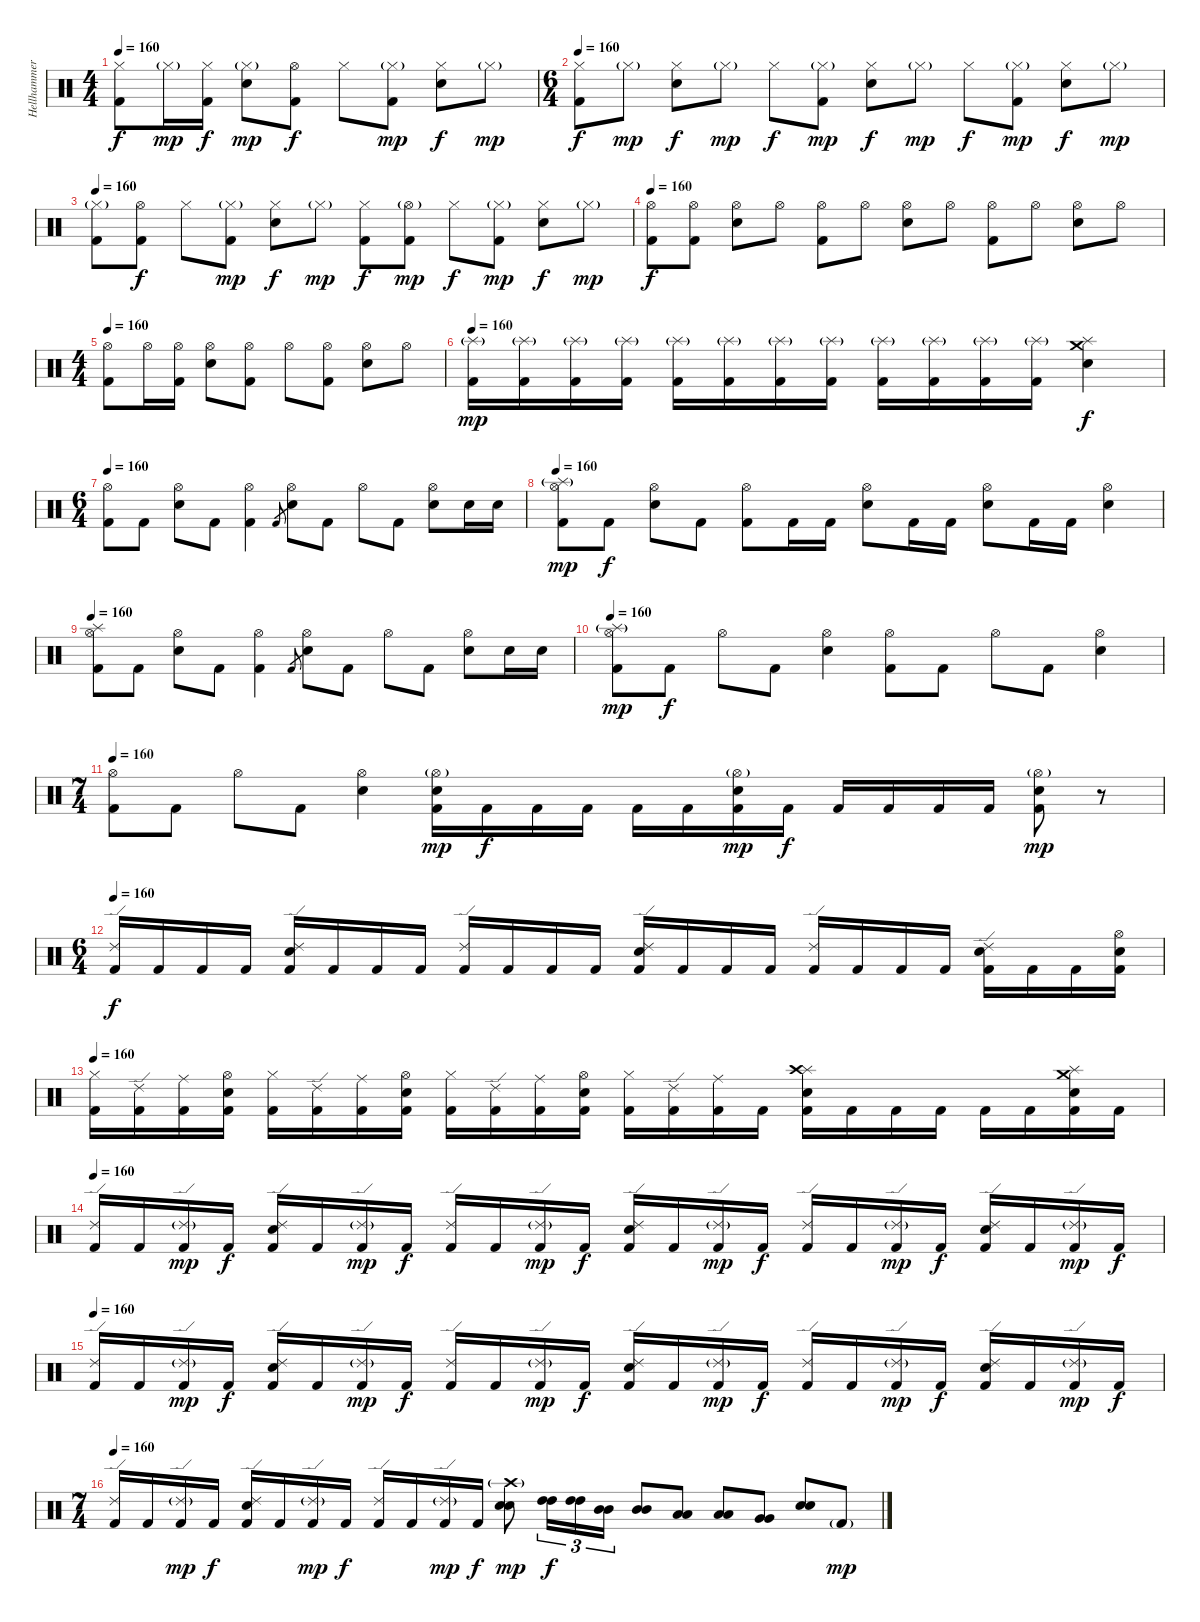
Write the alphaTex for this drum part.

\track ("Hellhammer" "Hellhammer") {instrument percussion}
\staff {score}
\articulation defaults
\ts (4 4)
\tempo 160
\clef neutral
\ks c
("Kick (hit) 2" "Hi-Hat (closed)").8{dy f} "Hi-Hat (closed)"{g}.16{dy mp} ("Kick (hit) 2" "Hi-Hat (closed)").16{dy f} ("Electric Snare (hit)" "Hi-Hat (closed)"{g}).8{dy mp} ("Kick (hit) 2" "Hi-Hat (open)").8{dy f} "Hi-Hat (closed)".8 ("Kick (hit) 2" "Hi-Hat (closed)"{g}).8{dy mp} ("Electric Snare (hit)" "Hi-Hat (closed)").8{dy f} "Hi-Hat (closed)"{g}.8{dy mp} |
\ts (6 4)
\tempo 160
("Kick (hit) 2" "Hi-Hat (closed)").8{dy f} "Hi-Hat (closed)"{g}.8{dy mp} ("Electric Snare (hit)" "Hi-Hat (closed)").8{dy f} "Hi-Hat (closed)"{g}.8{dy mp} "Hi-Hat (closed)".8{dy f} ("Kick (hit) 2" "Hi-Hat (closed)"{g}).8{dy mp} ("Electric Snare (hit)" "Hi-Hat (closed)").8{dy f} "Hi-Hat (closed)"{g}.8{dy mp} "Hi-Hat (closed)".8{dy f} ("Kick (hit) 2" "Hi-Hat (closed)"{g}).8{dy mp} ("Electric Snare (hit)" "Hi-Hat (closed)").8{dy f} "Hi-Hat (closed)"{g}.8{dy mp} |
\tempo 160
("Kick (hit) 2" "Hi-Hat (closed)"{g}).8 ("Kick (hit) 2" "Hi-Hat (open)").8{dy f} "Hi-Hat (closed)".8 ("Kick (hit) 2" "Hi-Hat (closed)"{g}).8{dy mp} ("Electric Snare (hit)" "Hi-Hat (closed)").8{dy f} "Hi-Hat (closed)"{g}.8{dy mp} ("Kick (hit) 2" "Hi-Hat (closed)").8{dy f} ("Kick (hit) 2" "Hi-Hat (open)"{g}).8{dy mp} "Hi-Hat (closed)".8{dy f} ("Kick (hit) 2" "Hi-Hat (closed)"{g}).8{dy mp} ("Electric Snare (hit)" "Hi-Hat (closed)").8{dy f} "Hi-Hat (closed)"{g}.8{dy mp} |
\tempo 160
("Kick (hit) 2" "Hi-Hat (open)").8{dy f} ("Kick (hit) 2" "Hi-Hat (open)").8 ("Electric Snare (hit)" "Hi-Hat (open)").8 "Hi-Hat (open)".8 ("Kick (hit) 2" "Hi-Hat (open)").8 "Hi-Hat (open)".8 ("Electric Snare (hit)" "Hi-Hat (open)").8 "Hi-Hat (open)".8 ("Kick (hit) 2" "Hi-Hat (open)").8 "Hi-Hat (open)".8 ("Electric Snare (hit)" "Hi-Hat (open)").8 "Hi-Hat (open)".8 |
\ts (4 4)
\tempo 160
("Kick (hit) 2" "Hi-Hat (open)").8 "Hi-Hat (open)".16 ("Kick (hit) 2" "Hi-Hat (open)").16 ("Electric Snare (hit)" "Hi-Hat (open)").8 ("Kick (hit) 2" "Hi-Hat (open)").8 "Hi-Hat (open)".8 ("Kick (hit) 2" "Hi-Hat (open)").8 ("Electric Snare (hit)" "Hi-Hat (open)").8 "Hi-Hat (open)".8 |
\tempo 160
("Kick (hit) 2" "Splash (hit)"{g}).16{dy mp} ("Kick (hit) 2" "Splash (hit)"{g}).16 ("Kick (hit) 2" "Splash (hit)"{g}).16 ("Kick (hit) 2" "Splash (hit)"{g}).16 ("Kick (hit) 2" "Splash (hit)"{g}).16 ("Kick (hit) 2" "Splash (hit)"{g}).16 ("Kick (hit) 2" "Splash (hit)"{g}).16 ("Kick (hit) 2" "Splash (hit)"{g}).16 ("Kick (hit) 2" "Splash (hit)"{g}).16 ("Kick (hit) 2" "Splash (hit)"{g}).16 ("Kick (hit) 2" "Splash (hit)"{g}).16 ("Kick (hit) 2" "Splash (hit)"{g}).16 ("Electric Snare (hit)" "Splash (hit)" "Crash medium (hit)").4{dy f} |
\ts (6 4)
\tempo 160
("Kick (hit) 2" "Hi-Hat (open)").8 "Kick (hit) 2".8 ("Electric Snare (hit)" "Hi-Hat (open)").8 "Kick (hit) 2".8 ("Kick (hit) 2" "Hi-Hat (open)").4 "Kick (hit) 2".8{gr} ("Electric Snare (hit)" "Hi-Hat (open)").8 "Kick (hit) 2".8 "Hi-Hat (open)".8 "Kick (hit) 2".8 ("Electric Snare (hit)" "Hi-Hat (open)").8 "Electric Snare (hit)".16 "Electric Snare (hit)".16 |
\tempo 160
("Kick (hit) 2" "Hi-Hat (open)" "Splash (hit)"{g}).8{dy mp} "Kick (hit) 2".8{dy f} ("Electric Snare (hit)" "Hi-Hat (open)").8 "Kick (hit) 2".8 ("Kick (hit) 2" "Hi-Hat (open)").8 "Kick (hit) 2".16 "Kick (hit) 2".16 ("Electric Snare (hit)" "Hi-Hat (open)").8 "Kick (hit) 2".16 "Kick (hit) 2".16 ("Electric Snare (hit)" "Hi-Hat (open)").8 "Kick (hit) 2".16 "Kick (hit) 2".16 ("Electric Snare (hit)" "Hi-Hat (open)").4 |
\tempo 160
("Kick (hit) 2" "Hi-Hat (open)" "Splash (hit)").8 "Kick (hit) 2".8 ("Electric Snare (hit)" "Hi-Hat (open)").8 "Kick (hit) 2".8 ("Kick (hit) 2" "Hi-Hat (open)").4 "Kick (hit) 2".8{gr} ("Electric Snare (hit)" "Hi-Hat (open)").8 "Kick (hit) 2".8 "Hi-Hat (open)".8 "Kick (hit) 2".8 ("Electric Snare (hit)" "Hi-Hat (open)").8 "Electric Snare (hit)".16 "Electric Snare (hit)".16 |
\tempo 160
("Kick (hit) 2" "Hi-Hat (open)" "Splash (hit)"{g}).8{dy mp} "Kick (hit) 2".8{dy f} "Hi-Hat (open)".8 "Kick (hit) 2".8 ("Electric Snare (hit)" "Hi-Hat (open)").4 ("Kick (hit) 2" "Hi-Hat (open)").8 "Kick (hit) 2".8 "Hi-Hat (open)".8 "Kick (hit) 2".8 ("Electric Snare (hit)" "Hi-Hat (open)").4 |
\ts (7 4)
\tempo 160
("Kick (hit) 2" "Hi-Hat (open)").8 "Kick (hit) 2".8 "Hi-Hat (open)".8 "Kick (hit) 2".8 ("Electric Snare (hit)" "Hi-Hat (open)").4 ("Kick (hit) 2" "Electric Snare (hit)" "Hi-Hat (open)"{g}).16{dy mp} "Kick (hit) 2".16{dy f} "Kick (hit) 2".16 "Kick (hit) 2".16 "Kick (hit) 2".16 "Kick (hit) 2".16 ("Kick (hit) 2" "Electric Snare (hit)" "Hi-Hat (open)"{g}).16{dy mp} "Kick (hit) 2".16{dy f} "Kick (hit) 2".16 "Kick (hit) 2".16 "Kick (hit) 2".16 "Kick (hit) 2".16 ("Kick (hit) 2" "Electric Snare (hit)" "Hi-Hat (open)"{g}).8{dy mp} r.8 |
\ts (6 4)
\tempo 160
("Kick (hit) 2" "Ride (edge) 2").16{dy f} "Kick (hit) 2".16 "Kick (hit) 2".16 "Kick (hit) 2".16 ("Kick (hit) 2" "Electric Snare (hit)" "Ride (edge) 2").16 "Kick (hit) 2".16 "Kick (hit) 2".16 "Kick (hit) 2".16 ("Kick (hit) 2" "Ride (edge) 2").16 "Kick (hit) 2".16 "Kick (hit) 2".16 "Kick (hit) 2".16 ("Kick (hit) 2" "Electric Snare (hit)" "Ride (edge) 2").16 "Kick (hit) 2".16 "Kick (hit) 2".16 "Kick (hit) 2".16 ("Kick (hit) 2" "Ride (edge) 2").16 "Kick (hit) 2".16 "Kick (hit) 2".16 "Kick (hit) 2".16 ("Kick (hit) 2" "Electric Snare (hit)" "Ride (edge) 2").16 "Kick (hit) 2".16 "Kick (hit) 2".16 ("Kick (hit) 2" "Electric Snare (hit)" "Hi-Hat (open)").16 |
\tempo 160
("Kick (hit) 2" "Hi-Hat (closed)").16 ("Kick (hit) 2" "Ride (edge) 2").16 ("Kick (hit) 2" "Ride (middle)").16 ("Kick (hit) 2" "Electric Snare (hit)" "Hi-Hat (open)").16 ("Kick (hit) 2" "Hi-Hat (closed)").16 ("Kick (hit) 2" "Ride (edge) 2").16 ("Kick (hit) 2" "Ride (middle)").16 ("Kick (hit) 2" "Electric Snare (hit)" "Hi-Hat (open)").16 ("Kick (hit) 2" "Hi-Hat (closed)").16 ("Kick (hit) 2" "Ride (edge) 2").16 ("Kick (hit) 2" "Ride (middle)").16 ("Kick (hit) 2" "Electric Snare (hit)" "Hi-Hat (open)").16 ("Kick (hit) 2" "Hi-Hat (closed)").16 ("Kick (hit) 2" "Ride (edge) 2").16 ("Kick (hit) 2" "Ride (middle)").16 "Kick (hit) 2".16 ("Kick (hit) 2" "Electric Snare (hit)" "Splash (hit)" "Crash high (hit)").16 "Kick (hit) 2".16 "Kick (hit) 2".16 "Kick (hit) 2".16 "Kick (hit) 2".16 "Kick (hit) 2".16 ("Kick (hit) 2" "Electric Snare (hit)" "Splash (hit)" "Crash medium (hit)").16 "Kick (hit) 2".16 |
\tempo 160
("Kick (hit) 2" "Ride (edge) 2").16 "Kick (hit) 2".16 ("Kick (hit) 2" "Ride (edge) 2"{g}).16{dy mp} "Kick (hit) 2".16{dy f} ("Kick (hit) 2" "Electric Snare (hit)" "Ride (edge) 2").16 "Kick (hit) 2".16 ("Kick (hit) 2" "Ride (edge) 2"{g}).16{dy mp} "Kick (hit) 2".16{dy f} ("Kick (hit) 2" "Ride (edge) 2").16 "Kick (hit) 2".16 ("Kick (hit) 2" "Ride (edge) 2"{g}).16{dy mp} "Kick (hit) 2".16{dy f} ("Kick (hit) 2" "Electric Snare (hit)" "Ride (edge) 2").16 "Kick (hit) 2".16 ("Kick (hit) 2" "Ride (edge) 2"{g}).16{dy mp} "Kick (hit) 2".16{dy f} ("Kick (hit) 2" "Ride (edge) 2").16 "Kick (hit) 2".16 ("Kick (hit) 2" "Ride (edge) 2"{g}).16{dy mp} "Kick (hit) 2".16{dy f} ("Kick (hit) 2" "Electric Snare (hit)" "Ride (edge) 2").16 "Kick (hit) 2".16 ("Kick (hit) 2" "Ride (edge) 2"{g}).16{dy mp} "Kick (hit) 2".16{dy f} |
\tempo 160
("Kick (hit) 2" "Ride (edge) 2").16 "Kick (hit) 2".16 ("Kick (hit) 2" "Ride (edge) 2"{g}).16{dy mp} "Kick (hit) 2".16{dy f} ("Kick (hit) 2" "Electric Snare (hit)" "Ride (edge) 2").16 "Kick (hit) 2".16 ("Kick (hit) 2" "Ride (edge) 2"{g}).16{dy mp} "Kick (hit) 2".16{dy f} ("Kick (hit) 2" "Ride (edge) 2").16 "Kick (hit) 2".16 ("Kick (hit) 2" "Ride (edge) 2"{g}).16{dy mp} "Kick (hit) 2".16{dy f} ("Kick (hit) 2" "Electric Snare (hit)" "Ride (edge) 2").16 "Kick (hit) 2".16 ("Kick (hit) 2" "Ride (edge) 2"{g}).16{dy mp} "Kick (hit) 2".16{dy f} ("Kick (hit) 2" "Ride (edge) 2").16 "Kick (hit) 2".16 ("Kick (hit) 2" "Ride (edge) 2"{g}).16{dy mp} "Kick (hit) 2".16{dy f} ("Kick (hit) 2" "Electric Snare (hit)" "Ride (edge) 2").16 "Kick (hit) 2".16 ("Kick (hit) 2" "Ride (edge) 2"{g}).16{dy mp} "Kick (hit) 2".16{dy f} |
\ts (7 4)
\tempo 160
("Kick (hit) 2" "Ride (edge) 2").16 "Kick (hit) 2".16 ("Kick (hit) 2" "Ride (edge) 2"{g}).16{dy mp} "Kick (hit) 2".16{dy f} ("Kick (hit) 2" "Electric Snare (hit)" "Ride (edge) 2").16 "Kick (hit) 2".16 ("Kick (hit) 2" "Ride (edge) 2"{g}).16{dy mp} "Kick (hit) 2".16{dy f} ("Kick (hit) 2" "Ride (edge) 2").16 "Kick (hit) 2".16 ("Kick (hit) 2" "Ride (edge) 2"{g}).16{dy mp} "Kick (hit) 2".16{dy f} ("Electric Snare (hit)" "Electric Snare (hit)" "Crash high (hit)"{g}).8{dy mp} ("High Tom (hit)" "High Tom (hit)").16{tu (3 2) dy f} ("High Tom (hit)" "High Tom (hit)").16{tu (3 2)} ("Mid Tom (hit)" "Mid Tom (hit)").16{tu (3 2)} ("Mid Tom (hit)" "Mid Tom (hit)").8 ("Low Tom (hit)" "Low Tom (hit)").8 ("Low Tom (hit)" "Low Tom (hit)").8 ("Very Low Tom (hit)" "Very Low Tom (hit)").8 ("Electric Snare (hit)" "Electric Snare (hit)").8 "Kick (hit) 2"{g}.8{dy mp}
